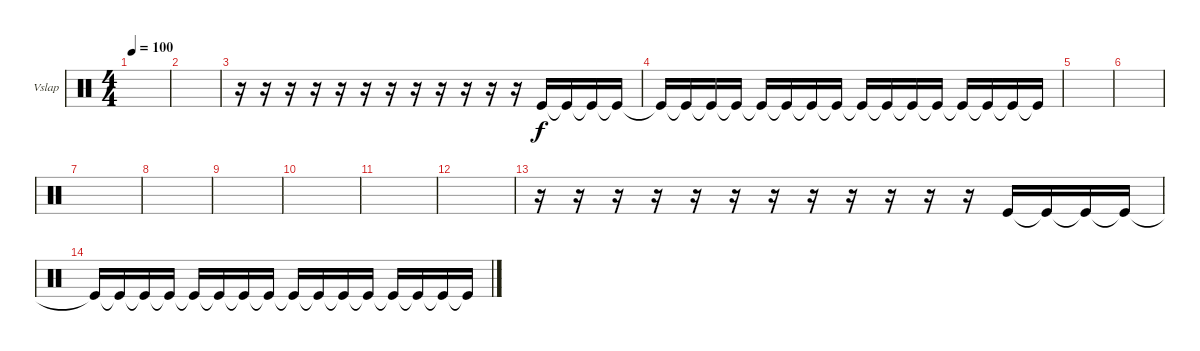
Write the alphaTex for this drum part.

\defaultSystemsLayout 4
\bracketExtendMode groupsimilarinstruments
\firstSystemTrackNameOrientation horizontal
\otherSystemsTrackNameOrientation horizontal
\track ("Vibraslap" "Vslap") {instrument percussion}
\staff {score}
\articulation defaults
\ts (4 4)
\tempo 100
\clef neutral
\scale
0.333333
\ks c
|
\scale
0.333333 |
\scale
0.333333 r.16 r.16 r.16 r.16 r.16 r.16 r.16 r.16 r.16 r.16 r.16 r.16 "Kick (hit)".16 "Kick (hit)"{t}.16 "Kick (hit)"{t}.16 "Kick (hit)"{t}.16 |
\scale
0.333333 "Kick (hit)"{t}.16 "Kick (hit)"{t}.16 "Kick (hit)"{t}.16 "Kick (hit)"{t}.16 "Kick (hit)"{t}.16 "Kick (hit)"{t}.16 "Kick (hit)"{t}.16 "Kick (hit)"{t}.16 "Kick (hit)"{t}.16 "Kick (hit)"{t}.16 "Kick (hit)"{t}.16 "Kick (hit)"{t}.16 "Kick (hit)"{t}.16 "Kick (hit)"{t}.16 "Kick (hit)"{t}.16 "Kick (hit)"{t}.16 |
\scale
0.333333 |
\scale
0.333333 |
\scale
0.333333 |
\scale
0.333333 |
\scale
0.333333 |
\scale
0.333333 |
\scale
0.333333 |
\scale
0.333333 |
\scale
0.333333 r.16 r.16 r.16 r.16 r.16 r.16 r.16 r.16 r.16 r.16 r.16 r.16 "Kick (hit)".16 "Kick (hit)"{t}.16 "Kick (hit)"{t}.16 "Kick (hit)"{t}.16 |
"Kick (hit)"{t}.16 "Kick (hit)"{t}.16 "Kick (hit)"{t}.16 "Kick (hit)"{t}.16 "Kick (hit)"{t}.16 "Kick (hit)"{t}.16 "Kick (hit)"{t}.16 "Kick (hit)"{t}.16 "Kick (hit)"{t}.16 "Kick (hit)"{t}.16 "Kick (hit)"{t}.16 "Kick (hit)"{t}.16 "Kick (hit)"{t}.16 "Kick (hit)"{t}.16 "Kick (hit)"{t}.16 "Kick (hit)"{t}.16
